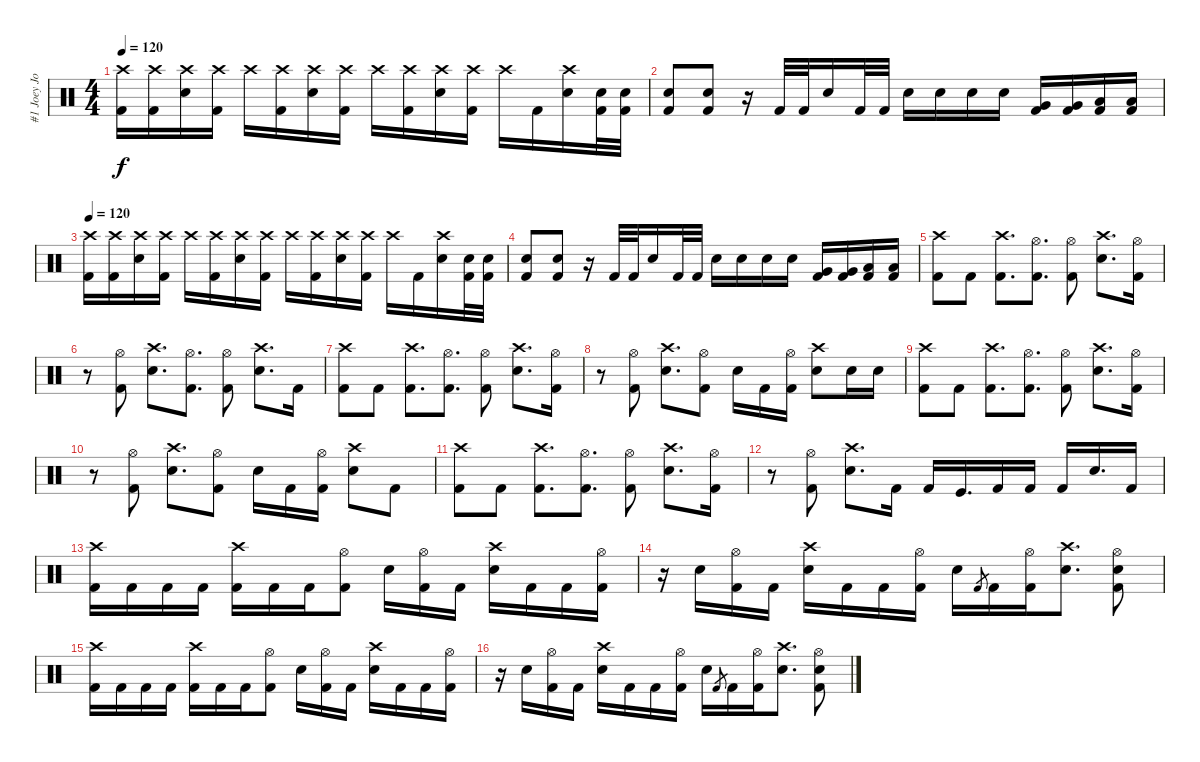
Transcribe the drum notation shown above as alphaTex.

\track ("#1 Joey Jordison" "#1 Joey Jo") {instrument percussion}
\staff {score}
\articulation defaults
\ts (4 4)
\tempo 120
\clef neutral
\ks c
("Crash high (hit)" "Kick (hit) 2").16{dy f} ("Crash high (hit)" "Kick (hit) 2").16 ("Crash high (hit)" "Electric Snare (hit)").16 ("Crash high (hit)" "Kick (hit) 2").16 "Crash high (hit)".16 ("Crash high (hit)" "Kick (hit) 2").16 ("Crash high (hit)" "Electric Snare (hit)").16 ("Crash high (hit)" "Kick (hit) 2").16 "Crash high (hit)".16 ("Crash high (hit)" "Kick (hit) 2").16 ("Crash high (hit)" "Electric Snare (hit)").16 ("Crash high (hit)" "Kick (hit) 2").16 "Crash high (hit)".16 "Kick (hit) 2".16 ("Crash high (hit)" "Electric Snare (hit)").16 ("Electric Snare (hit)" "Kick (hit) 2").32 ("Electric Snare (hit)" "Kick (hit) 2").32 |
("Electric Snare (hit)" "Kick (hit) 2").8 ("Electric Snare (hit)" "Kick (hit) 2").8 r.16 "Kick (hit) 2".32 "Kick (hit) 2".32 "Electric Snare (hit)".16 "Kick (hit) 2".32 "Kick (hit) 2".32 "Electric Snare (hit)".16 "Electric Snare (hit)".16 "Snare (hit) 2".16 "Snare (hit) 2".16 ("Very Low Tom (hit)" "Kick (hit) 2").16 ("Very Low Tom (hit)" "Kick (hit) 2").16 ("Low Floor Tom (hit)" "Kick (hit) 2").16 ("Low Floor Tom (hit)" "Kick (hit) 2").16 |
\tempo 120
("Crash high (hit)" "Kick (hit) 2").16 ("Crash high (hit)" "Kick (hit) 2").16 ("Crash high (hit)" "Electric Snare (hit)").16 ("Crash high (hit)" "Kick (hit) 2").16 "Crash high (hit)".16 ("Crash high (hit)" "Kick (hit) 2").16 ("Crash high (hit)" "Electric Snare (hit)").16 ("Crash high (hit)" "Kick (hit) 2").16 "Crash high (hit)".16 ("Crash high (hit)" "Kick (hit) 2").16 ("Crash high (hit)" "Electric Snare (hit)").16 ("Crash high (hit)" "Kick (hit) 2").16 "Crash high (hit)".16 "Kick (hit) 2".16 ("Crash high (hit)" "Electric Snare (hit)").16 ("Electric Snare (hit)" "Kick (hit) 2").32 ("Electric Snare (hit)" "Kick (hit) 2").32 |
("Electric Snare (hit)" "Kick (hit) 2").8 ("Electric Snare (hit)" "Kick (hit) 2").8 r.16 "Kick (hit) 2".32 "Kick (hit) 2".32 "Electric Snare (hit)".16 "Kick (hit) 2".32 "Kick (hit) 2".32 "Electric Snare (hit)".16 "Electric Snare (hit)".16 "Snare (hit) 2".16 "Snare (hit) 2".16 ("Very Low Tom (hit)" "Kick (hit) 2").16 ("Very Low Tom (hit)" "Kick (hit) 2").16 ("Low Floor Tom (hit)" "Kick (hit) 2").16 ("Low Floor Tom (hit)" "Kick (hit) 2").16 |
("Crash high (hit)" "Kick (hit) 2").8 "Kick (hit) 2".8 ("Crash high (hit)" "Kick (hit) 2").8{d} ("Hi-Hat (open)" "Kick (hit) 2").8{d} ("Hi-Hat (open)" "Kick (hit) 2").8 ("Crash high (hit)" "Electric Snare (hit)").8{d} ("Hi-Hat (open)" "Kick (hit) 2").16 |
r.8 ("Hi-Hat (open)" "Kick (hit) 2").8 ("Crash high (hit)" "Electric Snare (hit)").8{d} ("Hi-Hat (open)" "Kick (hit) 2").8{d} ("Hi-Hat (open)" "Kick (hit) 2").8 ("Crash high (hit)" "Electric Snare (hit)").8{d} "Kick (hit) 2".16 |
("Crash high (hit)" "Kick (hit) 2").8 "Kick (hit) 2".8 ("Crash high (hit)" "Kick (hit) 2").8{d} ("Hi-Hat (open)" "Kick (hit) 2").8{d} ("Hi-Hat (open)" "Kick (hit) 2").8 ("Crash high (hit)" "Electric Snare (hit)").8{d} ("Hi-Hat (open)" "Kick (hit) 2").16 |
r.8 ("Hi-Hat (open)" "Kick (hit) 2").8 ("Crash high (hit)" "Electric Snare (hit)").8{d} ("Hi-Hat (open)" "Kick (hit) 2").8 "Electric Snare (hit)".16 "Kick (hit) 2".16 ("Hi-Hat (open)" "Kick (hit) 2").16 ("Crash high (hit)" "Electric Snare (hit)").8 "Electric Snare (hit)".16 "Electric Snare (hit)".16 |
("Crash high (hit)" "Kick (hit) 2").8 "Kick (hit) 2".8 ("Crash high (hit)" "Kick (hit) 2").8{d} ("Hi-Hat (open)" "Kick (hit) 2").8{d} ("Hi-Hat (open)" "Kick (hit) 2").8 ("Crash high (hit)" "Electric Snare (hit)").8{d} ("Hi-Hat (open)" "Kick (hit) 2").16 |
r.8 ("Hi-Hat (open)" "Kick (hit) 2").8 ("Crash high (hit)" "Electric Snare (hit)").8{d} ("Hi-Hat (open)" "Kick (hit) 2").8 "Electric Snare (hit)".16 "Kick (hit) 2".16 ("Hi-Hat (open)" "Kick (hit) 2").16 ("Crash high (hit)" "Electric Snare (hit)").8 "Kick (hit) 2".8 |
("Crash high (hit)" "Kick (hit) 2").8 "Kick (hit) 2".8 ("Crash high (hit)" "Kick (hit) 2").8{d} ("Hi-Hat (open)" "Kick (hit) 2").8{d} ("Hi-Hat (open)" "Kick (hit) 2").8 ("Crash high (hit)" "Electric Snare (hit)").8{d} ("Hi-Hat (open)" "Kick (hit) 2").16 |
r.8 ("Hi-Hat (open)" "Kick (hit) 2").8 ("Crash high (hit)" "Electric Snare (hit)").8{d} "Kick (hit) 2".16 "Kick (hit) 2".16 "Kick (hit)".16{d} "Kick (hit) 2".16 "Kick (hit) 2".16 "Kick (hit) 2".16 "Electric Snare (hit)".16{d} "Kick (hit) 2".16 |
("Crash high (hit)" "Kick (hit) 2").16 "Kick (hit) 2".16 "Kick (hit) 2".16 "Kick (hit) 2".16 ("Crash high (hit)" "Kick (hit) 2").16 "Kick (hit) 2".16 "Kick (hit) 2".16 ("Hi-Hat (open)" "Kick (hit) 2").8 "Electric Snare (hit)".16 ("Hi-Hat (open)" "Kick (hit) 2").16 "Kick (hit) 2".16 ("Crash high (hit)" "Electric Snare (hit)").16 "Kick (hit) 2".16 "Kick (hit) 2".16 ("Hi-Hat (open)" "Kick (hit) 2").16 |
r.16 "Electric Snare (hit)".16 ("Hi-Hat (open)" "Kick (hit) 2").16 "Kick (hit) 2".16 ("Crash high (hit)" "Electric Snare (hit)").16 "Kick (hit) 2".16 "Kick (hit) 2".16 ("Hi-Hat (open)" "Kick (hit) 2").16 "Electric Snare (hit)".16 "Kick (hit) 2".8{gr} "Kick (hit) 2".16 ("Hi-Hat (open)" "Kick (hit) 2").16 ("Crash high (hit)" "Electric Snare (hit)").8{d} ("Hi-Hat (open)" "Electric Snare (hit)" "Kick (hit) 2").8 |
("Crash high (hit)" "Kick (hit) 2").16 "Kick (hit) 2".16 "Kick (hit) 2".16 "Kick (hit) 2".16 ("Crash high (hit)" "Kick (hit) 2").16 "Kick (hit) 2".16 "Kick (hit) 2".16 ("Hi-Hat (open)" "Kick (hit) 2").8 "Electric Snare (hit)".16 ("Hi-Hat (open)" "Kick (hit) 2").16 "Kick (hit) 2".16 ("Crash high (hit)" "Electric Snare (hit)").16 "Kick (hit) 2".16 "Kick (hit) 2".16 ("Hi-Hat (open)" "Kick (hit) 2").16 |
r.16 "Electric Snare (hit)".16 ("Hi-Hat (open)" "Kick (hit) 2").16 "Kick (hit) 2".16 ("Crash high (hit)" "Electric Snare (hit)").16 "Kick (hit) 2".16 "Kick (hit) 2".16 ("Hi-Hat (open)" "Kick (hit) 2").16 "Electric Snare (hit)".16 "Kick (hit) 2".8{gr} "Kick (hit) 2".16 ("Hi-Hat (open)" "Kick (hit) 2").16 ("Crash high (hit)" "Electric Snare (hit)").8{d} ("Hi-Hat (open)" "Electric Snare (hit)" "Kick (hit) 2").8
